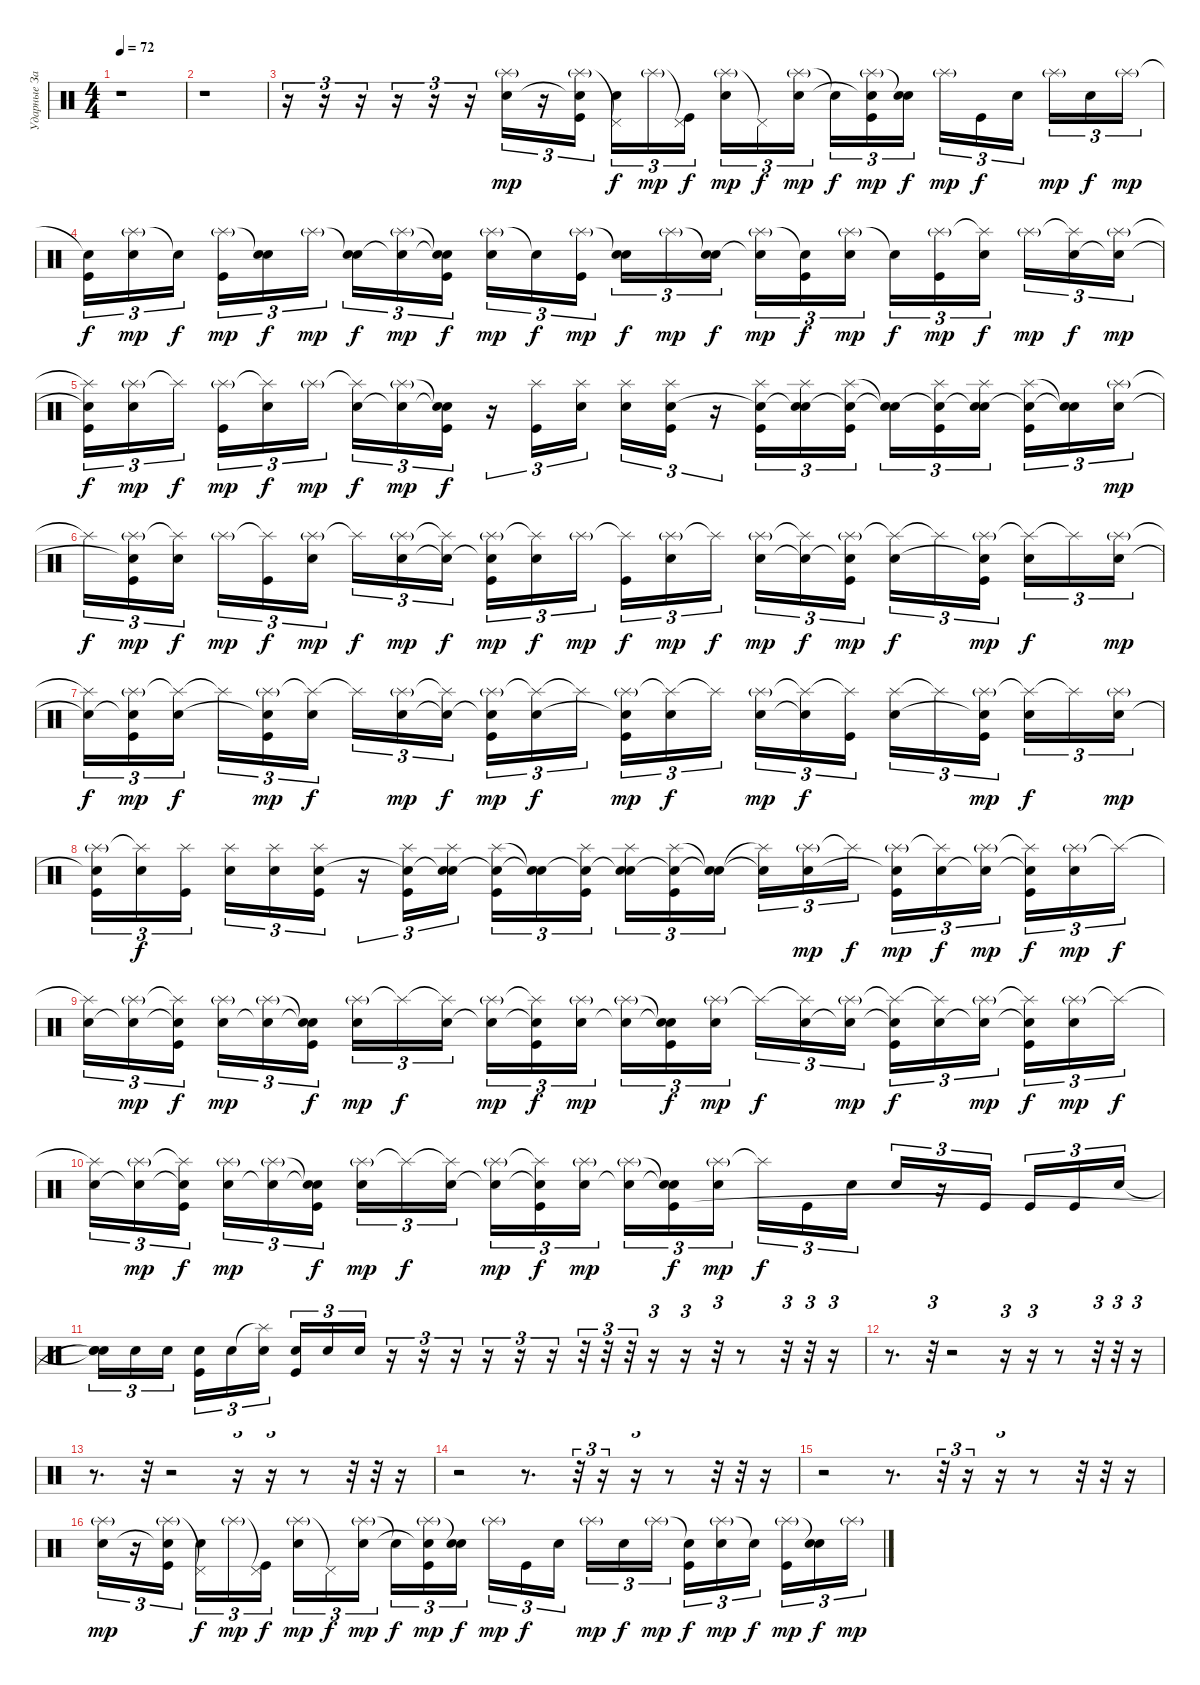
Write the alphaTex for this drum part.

\track ("Ударные Запарили(" "Ударные За") {instrument percussion}
\staff {score}
\articulation defaults
\ts (4 4)
\tempo 72
\clef neutral
\ks c
r.1{dy f} |
r.1 |
r.16{tu (3 2)} r.16{tu (3 2)} r.16{tu (3 2)} r.16{tu (3 2)} r.16{tu (3 2)} r.16{tu (3 2)} ("Splash (hit)"{g} "Snare (hit) 2").16{tu (3 2) dy mp} r.16{tu (3 2)} ("Splash (hit)"{g} "Snare (hit) 2"{t} "Kick (hit)").16{tu (3 2) beam splitsecondary} ("Pedal Hi-Hat (hit)"{t} "Snare (hit) 2").16{tu (3 2) dy f} "Splash (hit)"{g}.16{tu (3 2) dy mp} ("Pedal Hi-Hat (hit)"{t} "Kick (hit)").16{tu (3 2) dy f} ("Splash (hit)"{g} "Snare (hit) 2").16{tu (3 2) dy mp} "Pedal Hi-Hat (hit)"{t}.16{tu (3 2) dy f} ("Splash (hit)"{g} "Snare (hit) 2").16{tu (3 2) dy mp beam splitsecondary} "Snare (hit) 2"{t}.16{tu (3 2) dy f} ("Splash (hit)"{g} "Snare (hit) 2"{t} "Kick (hit)").16{tu (3 2) dy mp} ("Snare (hit)"{t} "Snare (hit) 2").16{tu (3 2) dy f} "Splash (hit)"{g}.16{tu (3 2) dy mp} "Kick (hit)".16{tu (3 2) dy f} "Snare (hit) 2".16{tu (3 2) beam splitsecondary} "Splash (hit)"{g}.16{tu (3 2) dy mp} "Snare (hit) 2".16{tu (3 2) dy f} "Splash (hit)"{g}.16{tu (3 2) dy mp} |
("Snare (hit) 2"{t} "Kick (hit)").16{tu (3 2) dy f} ("Splash (hit)"{g} "Snare (hit) 2").16{tu (3 2) dy mp} "Snare (hit)"{t}.16{tu (3 2) dy f beam splitsecondary} ("Splash (hit)"{g} "Kick (hit)").16{tu (3 2) dy mp} ("Snare (hit)"{t} "Snare (hit) 2").16{tu (3 2) dy f} "Splash (hit)"{g}.16{tu (3 2) dy mp} ("Snare (hit)"{t} "Snare (hit) 2").16{tu (3 2) dy f} ("Splash (hit)"{g} "Snare (hit) 2"{t}).16{tu (3 2) dy mp} ("Snare (hit)"{t} "Snare (hit) 2"{t} "Kick (hit)").16{tu (3 2) dy f beam splitsecondary} ("Splash (hit)"{g} "Snare (hit) 2").16{tu (3 2) dy mp} "Snare (hit)"{t}.16{tu (3 2) dy f} ("Splash (hit)"{g} "Kick (hit)").16{tu (3 2) dy mp} ("Snare (hit)"{t} "Snare (hit) 2").16{tu (3 2) dy f} "Splash (hit)"{g}.16{tu (3 2) dy mp} ("Snare (hit)"{t} "Snare (hit) 2").16{tu (3 2) dy f beam splitsecondary} ("Splash (hit)"{g} "Snare (hit) 2"{t}).16{tu (3 2) dy mp} ("Snare (hit) 2"{t} "Kick (hit)").16{tu (3 2) dy f} ("Splash (hit)"{g} "Snare (hit) 2").16{tu (3 2) dy mp} "Snare (hit)"{t}.16{tu (3 2) dy f} ("Splash (hit)"{g} "Kick (hit)").16{tu (3 2) dy mp} ("Splash (hit)"{t} "Snare (hit) 2").16{tu (3 2) dy f beam splitsecondary} "Splash (hit)"{g}.16{tu (3 2) dy mp} ("Splash (hit)"{t} "Snare (hit) 2").16{tu (3 2) dy f} ("Splash (hit)"{g} "Snare (hit) 2"{t}).16{tu (3 2) dy mp} |
("Splash (hit)"{t} "Snare (hit) 2"{t} "Kick (hit)").16{tu (3 2) dy f} ("Splash (hit)"{g} "Snare (hit) 2").16{tu (3 2) dy mp} "Splash (hit)"{t}.16{tu (3 2) dy f beam splitsecondary} ("Splash (hit)"{g} "Kick (hit)").16{tu (3 2) dy mp} ("Splash (hit)"{t} "Snare (hit) 2").16{tu (3 2) dy f} "Splash (hit)"{g}.16{tu (3 2) dy mp} ("Splash (hit)"{t} "Snare (hit) 2").16{tu (3 2) dy f} ("Splash (hit)"{g} "Snare (hit) 2"{t}).16{tu (3 2) dy mp} ("Snare (hit)"{t} "Snare (hit) 2"{t} "Kick (hit)").16{tu (3 2) dy f} r.16{tu (3 2)} ("Splash (hit)" "Kick (hit)").16{tu (3 2)} ("Splash (hit)" "Snare (hit) 2").16{tu (3 2)} ("Splash (hit)" "Snare (hit) 2").16{tu (3 2)} ("Splash (hit)" "Snare (hit) 2" "Kick (hit)").16{tu (3 2)} r.16{tu (3 2)} ("Splash (hit)" "Snare (hit) 2"{t} "Kick (hit)").16{tu (3 2)} ("Splash (hit)" "Snare (hit) 2"{t} "Snare (hit) 2").16{tu (3 2)} ("Splash (hit)" "Snare (hit) 2"{t} "Kick (hit)").16{tu (3 2)} ("Snare (hit)"{t} "Snare (hit)"{t}).16{tu (3 2)} ("Splash (hit)" "Snare (hit) 2"{t} "Kick (hit)").16{tu (3 2)} ("Splash (hit)" "Snare (hit) 2"{t} "Snare (hit) 2").16{tu (3 2) beam splitsecondary} ("Splash (hit)" "Snare (hit) 2"{t} "Kick (hit)").16{tu (3 2)} ("Snare (hit)"{t} "Snare (hit)"{t}).16{tu (3 2)} ("Splash (hit)"{g} "Snare (hit) 2").16{tu (3 2) dy mp} |
"Splash (hit)"{t}.16{tu (3 2) dy f} ("Splash (hit)"{g} "Snare (hit) 2"{t} "Kick (hit)").16{tu (3 2) dy mp} ("Splash (hit)"{t} "Snare (hit) 2").16{tu (3 2) dy f beam splitsecondary} "Splash (hit)"{g}.16{tu (3 2) dy mp} ("Splash (hit)"{t} "Kick (hit)").16{tu (3 2) dy f} ("Splash (hit)"{g} "Snare (hit) 2").16{tu (3 2) dy mp} "Splash (hit)"{t}.16{tu (3 2) dy f} ("Splash (hit)"{g} "Snare (hit) 2").16{tu (3 2) dy mp} ("Splash (hit)"{t} "Snare (hit) 2"{t}).16{tu (3 2) dy f beam splitsecondary} ("Splash (hit)"{g} "Snare (hit) 2"{t} "Kick (hit)").16{tu (3 2) dy mp} ("Splash (hit)"{t} "Snare (hit) 2").16{tu (3 2) dy f} "Splash (hit)"{g}.16{tu (3 2) dy mp} ("Splash (hit)"{t} "Kick (hit)").16{tu (3 2) dy f} ("Splash (hit)"{g} "Snare (hit) 2").16{tu (3 2) dy mp} "Splash (hit)"{t}.16{tu (3 2) dy f beam splitsecondary} ("Splash (hit)"{g} "Snare (hit) 2").16{tu (3 2) dy mp} ("Splash (hit)"{t} "Snare (hit) 2"{t}).16{tu (3 2) dy f} ("Splash (hit)"{g} "Snare (hit) 2"{t} "Kick (hit)").16{tu (3 2) dy mp} ("Splash (hit)"{t} "Snare (hit) 2").16{tu (3 2) dy f} "Splash (hit)"{t}.16{tu (3 2)} ("Splash (hit)"{g} "Snare (hit) 2"{t} "Kick (hit)").16{tu (3 2) dy mp beam splitsecondary} ("Splash (hit)"{t} "Snare (hit) 2").16{tu (3 2) dy f} "Splash (hit)"{t}.16{tu (3 2)} ("Splash (hit)"{g} "Snare (hit) 2").16{tu (3 2) dy mp} |
("Splash (hit)"{t} "Snare (hit) 2"{t}).16{tu (3 2) dy f} ("Splash (hit)"{g} "Snare (hit) 2"{t} "Kick (hit)").16{tu (3 2) dy mp} ("Splash (hit)"{t} "Snare (hit) 2").16{tu (3 2) dy f beam splitsecondary} "Splash (hit)"{t}.16{tu (3 2)} ("Splash (hit)"{g} "Snare (hit) 2"{t} "Kick (hit)").16{tu (3 2) dy mp} ("Splash (hit)"{t} "Snare (hit) 2").16{tu (3 2) dy f} "Splash (hit)"{t}.16{tu (3 2)} ("Splash (hit)"{g} "Snare (hit) 2").16{tu (3 2) dy mp} ("Splash (hit)"{t} "Snare (hit) 2"{t}).16{tu (3 2) dy f beam splitsecondary} ("Splash (hit)"{g} "Snare (hit) 2"{t} "Kick (hit)").16{tu (3 2) dy mp} ("Splash (hit)"{t} "Snare (hit) 2").16{tu (3 2) dy f} "Splash (hit)"{t}.16{tu (3 2)} ("Splash (hit)"{g} "Snare (hit) 2"{t} "Kick (hit)").16{tu (3 2) dy mp} ("Splash (hit)"{t} "Snare (hit) 2").16{tu (3 2) dy f} "Splash (hit)"{t}.16{tu (3 2) beam splitsecondary} ("Splash (hit)"{g} "Snare (hit) 2").16{tu (3 2) dy mp} ("Splash (hit)"{t} "Snare (hit) 2"{t}).16{tu (3 2) dy f} ("Splash (hit)"{t} "Kick (hit)").16{tu (3 2)} ("Splash (hit)" "Snare (hit) 2").16{tu (3 2)} "Splash (hit)"{t}.16{tu (3 2)} ("Splash (hit)"{g} "Snare (hit) 2"{t} "Kick (hit)").16{tu (3 2) dy mp beam splitsecondary} ("Splash (hit)"{t} "Snare (hit) 2").16{tu (3 2) dy f} "Splash (hit)"{t}.16{tu (3 2)} ("Splash (hit)"{g} "Snare (hit) 2").16{tu (3 2) dy mp} |
("Splash (hit)"{g} "Snare (hit) 2"{t} "Kick (hit)").16{tu (3 2)} ("Splash (hit)"{t} "Snare (hit) 2").16{tu (3 2) dy f} ("Splash (hit)" "Kick (hit)").16{tu (3 2) beam splitsecondary} ("Splash (hit)" "Snare (hit) 2").16{tu (3 2)} ("Splash (hit)" "Snare (hit) 2").16{tu (3 2)} ("Splash (hit)" "Snare (hit) 2" "Kick (hit)").16{tu (3 2)} r.16{tu (3 2)} ("Splash (hit)" "Snare (hit) 2"{t} "Kick (hit)").16{tu (3 2)} ("Splash (hit)" "Snare (hit) 2"{t} "Snare (hit) 2").16{tu (3 2) beam splitsecondary} ("Splash (hit)" "Snare (hit) 2"{t} "Kick (hit)").16{tu (3 2)} ("Snare (hit)"{t} "Snare (hit)"{t}).16{tu (3 2)} ("Splash (hit)" "Snare (hit) 2"{t} "Kick (hit)").16{tu (3 2)} ("Splash (hit)" "Snare (hit) 2"{t} "Snare (hit) 2").16{tu (3 2)} ("Splash (hit)" "Snare (hit) 2"{t} "Kick (hit)").16{tu (3 2)} ("Snare (hit)"{t} "Snare (hit)"{t}).16{tu (3 2) beam splitsecondary} ("Splash (hit)"{t} "Snare (hit) 2"{t}).16{tu (3 2)} ("Splash (hit)"{g} "Snare (hit) 2").16{tu (3 2) dy mp} "Splash (hit)"{t}.16{tu (3 2) dy f} ("Splash (hit)"{g} "Snare (hit) 2"{t} "Kick (hit)").16{tu (3 2) dy mp} ("Splash (hit)"{t} "Snare (hit) 2").16{tu (3 2) dy f} ("Splash (hit)"{g} "Snare (hit) 2"{t}).16{tu (3 2) dy mp beam splitsecondary} ("Splash (hit)"{t} "Snare (hit) 2"{t} "Kick (hit)").16{tu (3 2) dy f} ("Splash (hit)"{g} "Snare (hit) 2").16{tu (3 2) dy mp} "Splash (hit)"{t}.16{tu (3 2) dy f} |
("Splash (hit)"{t} "Snare (hit) 2").16{tu (3 2)} ("Splash (hit)"{g} "Snare (hit) 2"{t}).16{tu (3 2) dy mp} ("Splash (hit)"{t} "Snare (hit) 2"{t} "Kick (hit)").16{tu (3 2) dy f beam splitsecondary} ("Splash (hit)"{g} "Snare (hit) 2").16{tu (3 2) dy mp} ("Splash (hit)"{g} "Snare (hit) 2"{t}).16{tu (3 2)} ("Snare (hit)"{t} "Snare (hit) 2"{t} "Kick (hit)").16{tu (3 2) dy f} ("Splash (hit)"{g} "Snare (hit) 2").16{tu (3 2) dy mp} "Splash (hit)"{t}.16{tu (3 2) dy f} ("Splash (hit)"{t} "Snare (hit) 2").16{tu (3 2) beam splitsecondary} ("Splash (hit)"{g} "Snare (hit) 2"{t}).16{tu (3 2) dy mp} ("Splash (hit)"{t} "Snare (hit) 2"{t} "Kick (hit)").16{tu (3 2) dy f} ("Splash (hit)"{g} "Snare (hit) 2").16{tu (3 2) dy mp} ("Splash (hit)"{g} "Snare (hit) 2"{t}).16{tu (3 2)} ("Snare (hit)"{t} "Snare (hit) 2"{t} "Kick (hit)").16{tu (3 2) dy f} ("Splash (hit)"{g} "Snare (hit) 2").16{tu (3 2) dy mp beam splitsecondary} "Splash (hit)"{t}.16{tu (3 2) dy f} ("Splash (hit)"{t} "Snare (hit) 2").16{tu (3 2)} ("Splash (hit)"{g} "Snare (hit) 2"{t}).16{tu (3 2) dy mp} ("Splash (hit)"{t} "Snare (hit) 2"{t} "Kick (hit)").16{tu (3 2) dy f} ("Splash (hit)"{t} "Snare (hit) 2").16{tu (3 2)} ("Splash (hit)"{g} "Snare (hit) 2"{t}).16{tu (3 2) dy mp beam splitsecondary} ("Splash (hit)"{t} "Snare (hit) 2"{t} "Kick (hit)").16{tu (3 2) dy f} ("Splash (hit)"{g} "Snare (hit) 2").16{tu (3 2) dy mp} "Splash (hit)"{t}.16{tu (3 2) dy f} |
("Splash (hit)"{t} "Snare (hit) 2").16{tu (3 2)} ("Splash (hit)"{g} "Snare (hit) 2"{t}).16{tu (3 2) dy mp} ("Splash (hit)"{t} "Snare (hit) 2"{t} "Kick (hit)").16{tu (3 2) dy f beam splitsecondary} ("Splash (hit)"{g} "Snare (hit) 2").16{tu (3 2) dy mp} ("Splash (hit)"{g} "Snare (hit) 2"{t}).16{tu (3 2)} ("Snare (hit)"{t} "Snare (hit) 2"{t} "Kick (hit)").16{tu (3 2) dy f} ("Splash (hit)"{g} "Snare (hit) 2").16{tu (3 2) dy mp} "Splash (hit)"{t}.16{tu (3 2) dy f} ("Splash (hit)"{t} "Snare (hit) 2").16{tu (3 2) beam splitsecondary} ("Splash (hit)"{g} "Snare (hit) 2"{t}).16{tu (3 2) dy mp} ("Splash (hit)"{t} "Snare (hit) 2"{t} "Kick (hit)").16{tu (3 2) dy f} ("Splash (hit)"{g} "Snare (hit) 2").16{tu (3 2) dy mp} ("Splash (hit)"{g} "Snare (hit) 2"{t}).16{tu (3 2)} ("Snare (hit)"{t} "Snare (hit) 2"{t} "Kick (hit)").16{tu (3 2) dy f} ("Splash (hit)"{g} "Snare (hit) 2").16{tu (3 2) dy mp beam splitsecondary} "Splash (hit)"{t}.16{tu (3 2) dy f} "Kick (hit)".16{tu (3 2)} "Snare (hit) 2".16{tu (3 2)} "Snare (hit) 2".16{tu (3 2)} r.16{tu (3 2)} "Kick (hit)".16{tu (3 2) beam splitsecondary} "Kick (hit)".16{tu (3 2)} "Kick (hit)".16{tu (3 2)} "Snare (hit) 2".16{tu (3 2)} |
("Snare (hit)"{t} "Snare (hit) 2" "Snare (hit)"{t}).16{tu (3 2)} "Snare (hit) 2".16{tu (3 2)} "Snare (hit) 2".16{tu (3 2) beam splitsecondary} ("Snare (hit) 2" "Kick (hit)").16{tu (3 2)} "Snare (hit) 2".16{tu (3 2)} ("Splash (hit)"{t} "Snare (hit) 2").16{tu (3 2)} ("Snare (hit) 2" "Kick (hit)").16{tu (3 2)} "Snare (hit) 2".16{tu (3 2)} "Snare (hit) 2".16{tu (3 2)} r.16{tu (3 2)} r.16{tu (3 2)} r.16{tu (3 2)} r.16{tu (3 2)} r.16{tu (3 2)} r.16{tu (3 2)} r.32{tu (3 2)} r.32{tu (3 2)} r.32{tu (3 2)} r.16{tu (3 2)} r.16{tu (3 2)} r.32{tu (3 2)} r.8 r.32{tu (3 2)} r.32{tu (3 2)} r.16{tu (3 2)} |
r.8{d} r.32{tu (3 2)} r.2 r.16{tu (3 2)} r.16{tu (3 2)} r.8 r.32{tu (3 2)} r.32{tu (3 2)} r.16{tu (3 2)} |
r.8{d} r.32{tu (3 2)} r.2 r.16{tu (3 2)} r.16{tu (3 2)} r.8 r.32{tu (3 2)} r.32{tu (3 2)} r.16{tu (3 2)} |
r.2 r.8{d} r.32{tu (3 2)} r.16{tu (3 2)} r.16{tu (3 2)} r.8 r.32{tu (3 2)} r.32{tu (3 2)} r.16{tu (3 2)} |
r.2 r.8{d} r.32{tu (3 2)} r.16{tu (3 2)} r.16{tu (3 2)} r.8 r.32{tu (3 2)} r.32{tu (3 2)} r.16{tu (3 2)} |
("Splash (hit)"{g} "Snare (hit) 2").16{tu (3 2) dy mp} r.16{tu (3 2)} ("Splash (hit)"{g} "Snare (hit) 2"{t} "Kick (hit)").16{tu (3 2) beam splitsecondary} ("Pedal Hi-Hat (hit)"{t} "Snare (hit) 2").16{tu (3 2) dy f} "Splash (hit)"{g}.16{tu (3 2) dy mp} ("Pedal Hi-Hat (hit)"{t} "Kick (hit)").16{tu (3 2) dy f} ("Splash (hit)"{g} "Snare (hit) 2").16{tu (3 2) dy mp} "Pedal Hi-Hat (hit)"{t}.16{tu (3 2) dy f} ("Splash (hit)"{g} "Snare (hit) 2").16{tu (3 2) dy mp beam splitsecondary} "Snare (hit) 2"{t}.16{tu (3 2) dy f} ("Splash (hit)"{g} "Snare (hit) 2"{t} "Kick (hit)").16{tu (3 2) dy mp} ("Snare (hit)"{t} "Snare (hit) 2").16{tu (3 2) dy f} "Splash (hit)"{g}.16{tu (3 2) dy mp} "Kick (hit)".16{tu (3 2) dy f} "Snare (hit) 2".16{tu (3 2) beam splitsecondary} "Splash (hit)"{g}.16{tu (3 2) dy mp} "Snare (hit) 2".16{tu (3 2) dy f} "Splash (hit)"{g}.16{tu (3 2) dy mp} ("Snare (hit) 2"{t} "Kick (hit)").16{tu (3 2) dy f} ("Splash (hit)"{g} "Snare (hit) 2").16{tu (3 2) dy mp} "Snare (hit)"{t}.16{tu (3 2) dy f beam splitsecondary} ("Splash (hit)"{g} "Kick (hit)").16{tu (3 2) dy mp} ("Snare (hit)"{t} "Snare (hit) 2").16{tu (3 2) dy f} "Splash (hit)"{g}.16{tu (3 2) dy mp}
